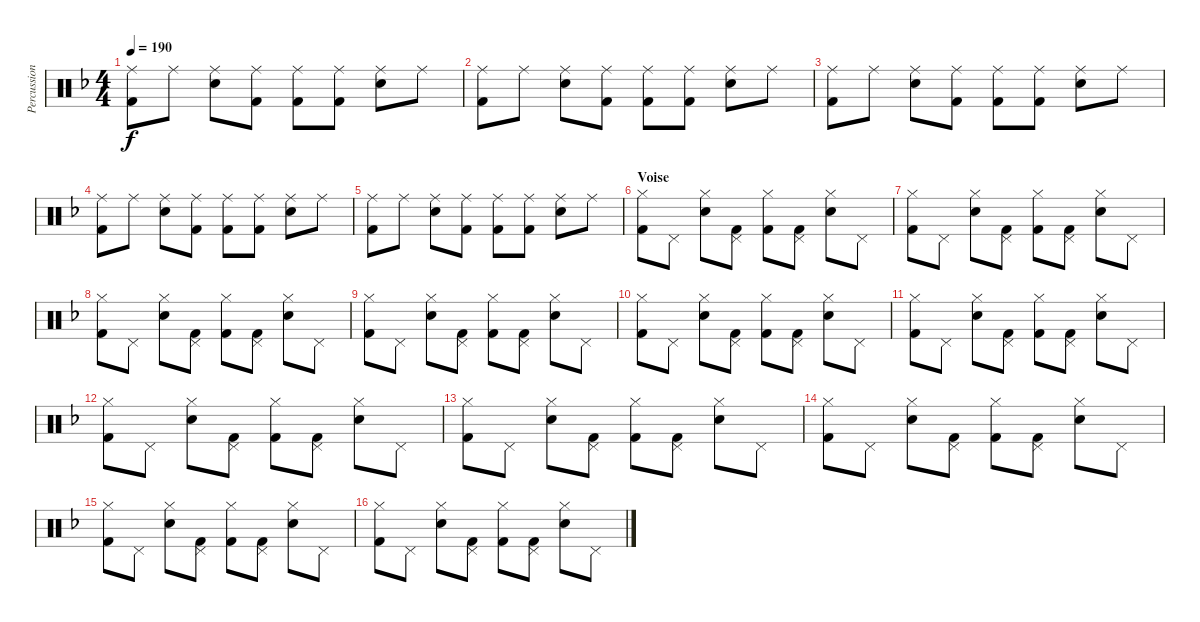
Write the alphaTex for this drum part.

\track ("Percussion" "Percussion") {instrument percussion}
\staff {score}
\articulation defaults
\ts (4 4)
\tempo 190
\clef neutral
\ks f
("Ride (middle)" "Kick (hit) 2").8{dy f} "Ride (middle)".8 ("Ride (middle)" "Snare (hit) 2").8 ("Ride (middle)" "Kick (hit) 2").8 ("Ride (middle)" "Kick (hit) 2").8 ("Ride (middle)" "Kick (hit) 2").8 ("Ride (middle)" "Snare (hit) 2").8 "Ride (middle)".8 |
("Ride (middle)" "Kick (hit) 2").8 "Ride (middle)".8 ("Ride (middle)" "Snare (hit) 2").8 ("Ride (middle)" "Kick (hit) 2").8 ("Ride (middle)" "Kick (hit) 2").8 ("Ride (middle)" "Kick (hit) 2").8 ("Ride (middle)" "Snare (hit) 2").8 "Ride (middle)".8 |
("Ride (middle)" "Kick (hit) 2").8 "Ride (middle)".8 ("Ride (middle)" "Snare (hit) 2").8 ("Ride (middle)" "Kick (hit) 2").8 ("Ride (middle)" "Kick (hit) 2").8 ("Ride (middle)" "Kick (hit) 2").8 ("Ride (middle)" "Snare (hit) 2").8 "Ride (middle)".8 |
("Ride (middle)" "Kick (hit) 2").8 "Ride (middle)".8 ("Ride (middle)" "Snare (hit) 2").8 ("Ride (middle)" "Kick (hit) 2").8 ("Ride (middle)" "Kick (hit) 2").8 ("Ride (middle)" "Kick (hit) 2").8 ("Ride (middle)" "Snare (hit) 2").8 "Ride (middle)".8 |
("Ride (middle)" "Kick (hit) 2").8 "Ride (middle)".8 ("Ride (middle)" "Snare (hit) 2").8 ("Ride (middle)" "Kick (hit) 2").8 ("Ride (middle)" "Kick (hit) 2").8 ("Ride (middle)" "Kick (hit) 2").8 ("Ride (middle)" "Snare (hit) 2").8 "Ride (middle)".8 |
\section ("" "Voise")
("Hi-Hat (closed)" "Kick (hit) 2").8 "Pedal Hi-Hat (hit)".8 ("Hi-Hat (closed)" "Snare (hit) 2").8 ("Pedal Hi-Hat (hit)" "Kick (hit) 2").8 ("Hi-Hat (closed)" "Kick (hit) 2").8 ("Pedal Hi-Hat (hit)" "Kick (hit) 2").8 ("Hi-Hat (closed)" "Snare (hit) 2").8 "Pedal Hi-Hat (hit)".8 |
("Hi-Hat (closed)" "Kick (hit) 2").8 "Pedal Hi-Hat (hit)".8 ("Hi-Hat (closed)" "Snare (hit) 2").8 ("Pedal Hi-Hat (hit)" "Kick (hit) 2").8 ("Hi-Hat (closed)" "Kick (hit) 2").8 ("Pedal Hi-Hat (hit)" "Kick (hit) 2").8 ("Hi-Hat (closed)" "Snare (hit) 2").8 "Pedal Hi-Hat (hit)".8 |
("Hi-Hat (closed)" "Kick (hit) 2").8 "Pedal Hi-Hat (hit)".8 ("Hi-Hat (closed)" "Snare (hit) 2").8 ("Pedal Hi-Hat (hit)" "Kick (hit) 2").8 ("Hi-Hat (closed)" "Kick (hit) 2").8 ("Pedal Hi-Hat (hit)" "Kick (hit) 2").8 ("Hi-Hat (closed)" "Snare (hit) 2").8 "Pedal Hi-Hat (hit)".8 |
("Hi-Hat (closed)" "Kick (hit) 2").8 "Pedal Hi-Hat (hit)".8 ("Hi-Hat (closed)" "Snare (hit) 2").8 ("Pedal Hi-Hat (hit)" "Kick (hit) 2").8 ("Hi-Hat (closed)" "Kick (hit) 2").8 ("Pedal Hi-Hat (hit)" "Kick (hit) 2").8 ("Hi-Hat (closed)" "Snare (hit) 2").8 "Pedal Hi-Hat (hit)".8 |
("Hi-Hat (closed)" "Kick (hit) 2").8 "Pedal Hi-Hat (hit)".8 ("Hi-Hat (closed)" "Snare (hit) 2").8 ("Pedal Hi-Hat (hit)" "Kick (hit) 2").8 ("Hi-Hat (closed)" "Kick (hit) 2").8 ("Pedal Hi-Hat (hit)" "Kick (hit) 2").8 ("Hi-Hat (closed)" "Snare (hit) 2").8 "Pedal Hi-Hat (hit)".8 |
("Hi-Hat (closed)" "Kick (hit) 2").8 "Pedal Hi-Hat (hit)".8 ("Hi-Hat (closed)" "Snare (hit) 2").8 ("Pedal Hi-Hat (hit)" "Kick (hit) 2").8 ("Hi-Hat (closed)" "Kick (hit) 2").8 ("Pedal Hi-Hat (hit)" "Kick (hit) 2").8 ("Hi-Hat (closed)" "Snare (hit) 2").8 "Pedal Hi-Hat (hit)".8 |
("Hi-Hat (closed)" "Kick (hit) 2").8 "Pedal Hi-Hat (hit)".8 ("Hi-Hat (closed)" "Snare (hit) 2").8 ("Pedal Hi-Hat (hit)" "Kick (hit) 2").8 ("Hi-Hat (closed)" "Kick (hit) 2").8 ("Pedal Hi-Hat (hit)" "Kick (hit) 2").8 ("Hi-Hat (closed)" "Snare (hit) 2").8 "Pedal Hi-Hat (hit)".8 |
("Hi-Hat (closed)" "Kick (hit) 2").8 "Pedal Hi-Hat (hit)".8 ("Hi-Hat (closed)" "Snare (hit) 2").8 ("Pedal Hi-Hat (hit)" "Kick (hit) 2").8 ("Hi-Hat (closed)" "Kick (hit) 2").8 ("Pedal Hi-Hat (hit)" "Kick (hit) 2").8 ("Hi-Hat (closed)" "Snare (hit) 2").8 "Pedal Hi-Hat (hit)".8 |
("Hi-Hat (closed)" "Kick (hit) 2").8 "Pedal Hi-Hat (hit)".8 ("Hi-Hat (closed)" "Snare (hit) 2").8 ("Pedal Hi-Hat (hit)" "Kick (hit) 2").8 ("Hi-Hat (closed)" "Kick (hit) 2").8 ("Pedal Hi-Hat (hit)" "Kick (hit) 2").8 ("Hi-Hat (closed)" "Snare (hit) 2").8 "Pedal Hi-Hat (hit)".8 |
("Hi-Hat (closed)" "Kick (hit) 2").8 "Pedal Hi-Hat (hit)".8 ("Hi-Hat (closed)" "Snare (hit) 2").8 ("Pedal Hi-Hat (hit)" "Kick (hit) 2").8 ("Hi-Hat (closed)" "Kick (hit) 2").8 ("Pedal Hi-Hat (hit)" "Kick (hit) 2").8 ("Hi-Hat (closed)" "Snare (hit) 2").8 "Pedal Hi-Hat (hit)".8 |
("Hi-Hat (closed)" "Kick (hit) 2").8 "Pedal Hi-Hat (hit)".8 ("Hi-Hat (closed)" "Snare (hit) 2").8 ("Pedal Hi-Hat (hit)" "Kick (hit) 2").8 ("Hi-Hat (closed)" "Kick (hit) 2").8 ("Pedal Hi-Hat (hit)" "Kick (hit) 2").8 ("Hi-Hat (closed)" "Snare (hit) 2").8 "Pedal Hi-Hat (hit)".8
